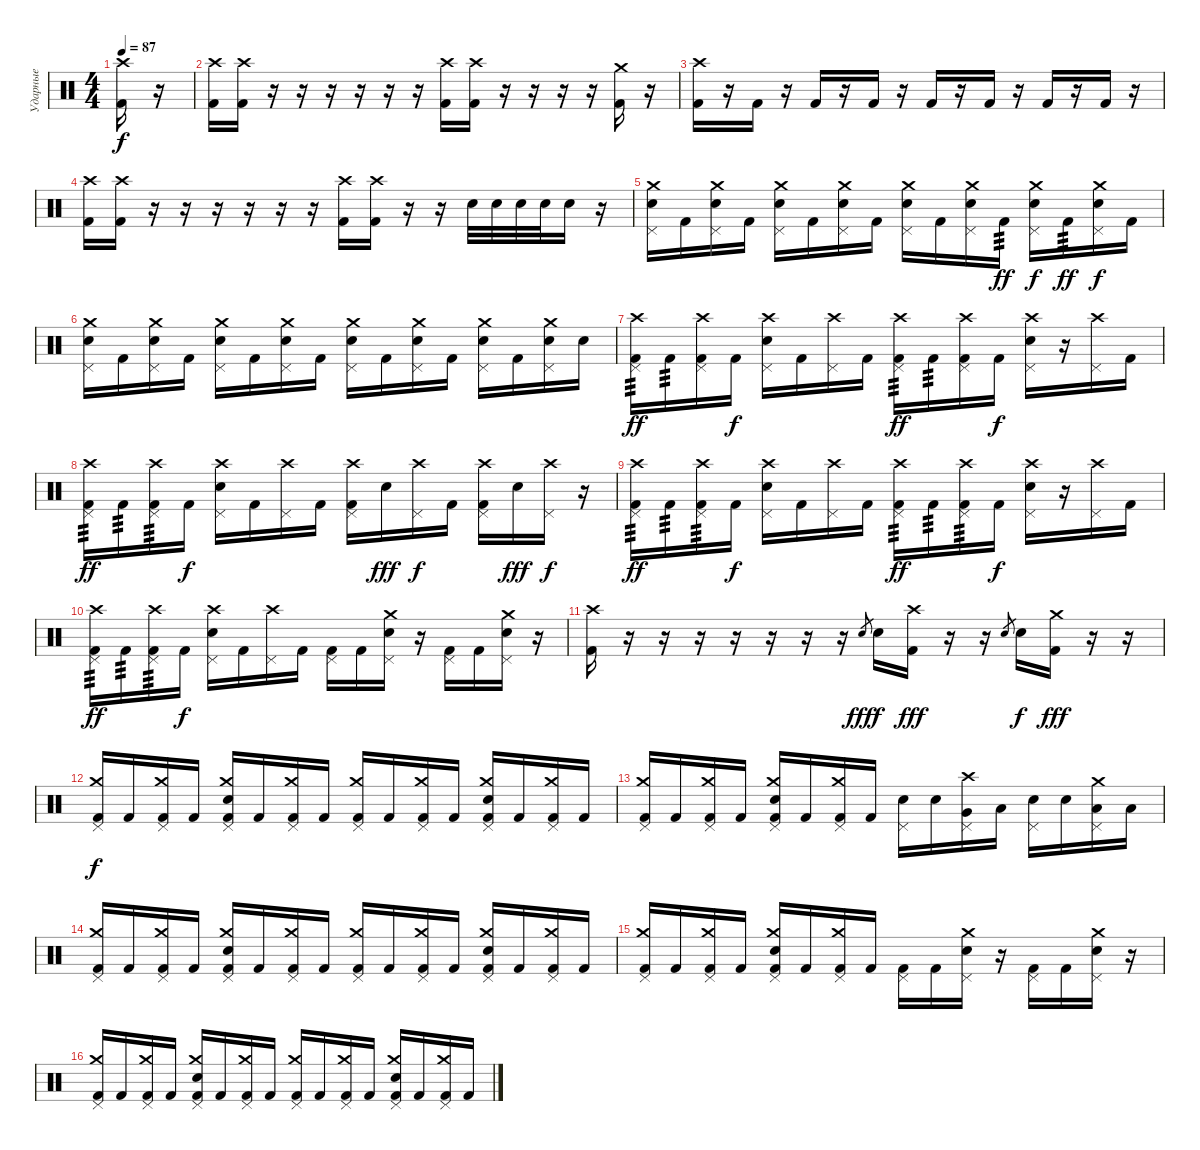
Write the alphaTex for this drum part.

\track ("Ударные" "Ударные") {instrument percussion}
\staff {score}
\articulation defaults
\ts (4 4)
\tempo 87
\clef neutral
\ks c
("Crash high (hit)" "Kick (hit) 2").16{dy f} r.16 |
("Crash high (hit)" "Kick (hit) 2").16 ("Crash high (hit)" "Kick (hit) 2").16 r.16 r.16 r.16 r.16 r.16 r.16 ("Crash high (hit)" "Kick (hit) 2").16 ("Crash high (hit)" "Kick (hit) 2").16 r.16 r.16 r.16 r.16 ("Crash medium (hit)" "Kick (hit) 2").16 r.16 |
("Crash high (hit)" "Kick (hit) 2").16 r.16 "Kick (hit) 2".16 r.16 "Kick (hit) 2".16 r.16 "Kick (hit) 2".16 r.16 "Kick (hit) 2".16 r.16 "Kick (hit) 2".16 r.16 "Kick (hit) 2".16 r.16 "Kick (hit) 2".16 r.16 |
("Crash high (hit)" "Kick (hit) 2").16 ("Crash high (hit)" "Kick (hit) 2").16 r.16 r.16 r.16 r.16 r.16 r.16 ("Crash high (hit)" "Kick (hit) 2").16 ("Crash high (hit)" "Kick (hit) 2").16 r.16 r.16 "Electric Snare (hit)".32 "Electric Snare (hit)".32 "Electric Snare (hit)".32 "Electric Snare (hit)".32 "Electric Snare (hit)".16 r.16 |
("Crash medium (hit)" "Pedal Hi-Hat (hit)" "Electric Snare (hit)").16 "Kick (hit) 2".16 ("Crash medium (hit)" "Pedal Hi-Hat (hit)" "Electric Snare (hit)").16 "Kick (hit) 2".16 ("Crash medium (hit)" "Pedal Hi-Hat (hit)" "Electric Snare (hit)").16 "Kick (hit) 2".16 ("Crash medium (hit)" "Pedal Hi-Hat (hit)" "Electric Snare (hit)").16 "Kick (hit) 2".16 ("Crash medium (hit)" "Pedal Hi-Hat (hit)" "Electric Snare (hit)").16 "Kick (hit) 2".16 ("Crash medium (hit)" "Pedal Hi-Hat (hit)" "Electric Snare (hit)").16 "Kick (hit) 2".16{tp 3 dy ff} ("Crash medium (hit)" "Pedal Hi-Hat (hit)" "Electric Snare (hit)").16{dy f} "Kick (hit) 2".16{tp 3 dy ff} ("Crash medium (hit)" "Pedal Hi-Hat (hit)" "Electric Snare (hit)").16{dy f} "Kick (hit) 2".16 |
("Crash medium (hit)" "Pedal Hi-Hat (hit)" "Electric Snare (hit)").16 "Kick (hit) 2".16 ("Crash medium (hit)" "Pedal Hi-Hat (hit)" "Electric Snare (hit)").16 "Kick (hit) 2".16 ("Crash medium (hit)" "Pedal Hi-Hat (hit)" "Electric Snare (hit)").16 "Kick (hit) 2".16 ("Crash medium (hit)" "Pedal Hi-Hat (hit)" "Electric Snare (hit)").16 "Kick (hit) 2".16 ("Crash medium (hit)" "Pedal Hi-Hat (hit)" "Electric Snare (hit)").16 "Kick (hit) 2".16 ("Crash medium (hit)" "Pedal Hi-Hat (hit)" "Electric Snare (hit)").16 "Kick (hit) 2".16 ("Crash medium (hit)" "Pedal Hi-Hat (hit)" "Electric Snare (hit)").16 "Kick (hit) 2".16 ("Crash medium (hit)" "Pedal Hi-Hat (hit)" "Electric Snare (hit)").16 "Electric Snare (hit)".16 |
("Crash high (hit)" "Pedal Hi-Hat (hit)" "Kick (hit) 2").16{tp 3 dy ff} "Kick (hit) 2".16{tp 3} ("Crash high (hit)" "Pedal Hi-Hat (hit)" "Kick (hit) 2").16 "Kick (hit) 2".16{dy f} ("Crash high (hit)" "Pedal Hi-Hat (hit)" "Electric Snare (hit)").16 "Kick (hit) 2".16 ("Crash high (hit)" "Pedal Hi-Hat (hit)").16 "Kick (hit) 2".16 ("Crash high (hit)" "Pedal Hi-Hat (hit)" "Kick (hit) 2").16{tp 3 dy ff} "Kick (hit) 2".16{tp 3} ("Crash high (hit)" "Pedal Hi-Hat (hit)" "Kick (hit) 2").16 "Kick (hit) 2".16{dy f} ("Crash high (hit)" "Pedal Hi-Hat (hit)" "Electric Snare (hit)").16 r.16 ("Crash high (hit)" "Pedal Hi-Hat (hit)").16 "Kick (hit) 2".16 |
("Crash high (hit)" "Pedal Hi-Hat (hit)" "Kick (hit) 2").16{tp 3 dy ff} "Kick (hit) 2".16{tp 3} ("Crash high (hit)" "Pedal Hi-Hat (hit)" "Kick (hit) 2").16{tp 3} "Kick (hit) 2".16{dy f} ("Crash high (hit)" "Pedal Hi-Hat (hit)" "Electric Snare (hit)").16 "Kick (hit) 2".16 ("Crash high (hit)" "Pedal Hi-Hat (hit)").16 "Kick (hit) 2".16 ("Crash high (hit)" "Pedal Hi-Hat (hit)" "Kick (hit) 2").16 "Electric Snare (hit)".16{dy fff} ("Crash high (hit)" "Pedal Hi-Hat (hit)").16{dy f} "Kick (hit) 2".16 ("Crash high (hit)" "Pedal Hi-Hat (hit)" "Kick (hit) 2").16 "Electric Snare (hit)".16{dy fff} ("Crash high (hit)" "Pedal Hi-Hat (hit)").16{dy f} r.16 |
("Crash high (hit)" "Pedal Hi-Hat (hit)" "Kick (hit) 2").16{tp 3 dy ff} "Kick (hit) 2".16{tp 3} ("Crash high (hit)" "Pedal Hi-Hat (hit)" "Kick (hit) 2").16{tp 3} "Kick (hit) 2".16{dy f} ("Crash high (hit)" "Pedal Hi-Hat (hit)" "Electric Snare (hit)").16 "Kick (hit) 2".16 ("Crash high (hit)" "Pedal Hi-Hat (hit)").16 "Kick (hit) 2".16 ("Crash high (hit)" "Pedal Hi-Hat (hit)" "Kick (hit) 2").16{tp 3 dy ff} "Kick (hit) 2".16{tp 3} ("Crash high (hit)" "Pedal Hi-Hat (hit)" "Kick (hit) 2").16{tp 3} "Kick (hit) 2".16{dy f} ("Crash high (hit)" "Pedal Hi-Hat (hit)" "Electric Snare (hit)").16 r.16 ("Crash high (hit)" "Pedal Hi-Hat (hit)").16 "Kick (hit) 2".16 |
("Crash high (hit)" "Pedal Hi-Hat (hit)" "Kick (hit) 2").16{tp 3 dy ff} "Kick (hit) 2".16{tp 3} ("Crash high (hit)" "Pedal Hi-Hat (hit)" "Kick (hit) 2").16{tp 3} "Kick (hit) 2".16{dy f} ("Crash high (hit)" "Pedal Hi-Hat (hit)" "Electric Snare (hit)").16 "Kick (hit) 2".16 ("Crash high (hit)" "Pedal Hi-Hat (hit)").16 "Kick (hit) 2".16 ("Pedal Hi-Hat (hit)" "Kick (hit) 2").16 "Kick (hit) 2".16 ("Crash medium (hit)" "Pedal Hi-Hat (hit)" "Electric Snare (hit)").16 r.16 ("Pedal Hi-Hat (hit)" "Kick (hit) 2").16 "Kick (hit) 2".16 ("Crash medium (hit)" "Pedal Hi-Hat (hit)" "Electric Snare (hit)").16 r.16 |
("Crash high (hit)" "Kick (hit) 2").16 r.16 r.16 r.16 r.16 r.16 r.16 r.16 "Electric Snare (hit)".8{gr dy fff} "Electric Snare (hit)".16{dy f} ("Crash high (hit)" "Kick (hit) 2").16{dy fff} r.16 r.16 "Electric Snare (hit)".8{gr} "Electric Snare (hit)".16{dy f} ("Crash medium (hit)" "Kick (hit) 2").16{dy fff} r.16 r.16 |
("Crash medium (hit)" "Pedal Hi-Hat (hit)" "Kick (hit) 2").16{dy f} "Kick (hit) 2".16 ("Crash medium (hit)" "Pedal Hi-Hat (hit)" "Kick (hit) 2").16 "Kick (hit) 2".16 ("Crash medium (hit)" "Pedal Hi-Hat (hit)" "Electric Snare (hit)" "Kick (hit) 2").16 "Kick (hit) 2".16 ("Crash medium (hit)" "Pedal Hi-Hat (hit)" "Kick (hit) 2").16 "Kick (hit) 2".16 ("Crash medium (hit)" "Pedal Hi-Hat (hit)" "Kick (hit) 2").16 "Kick (hit) 2".16 ("Crash medium (hit)" "Pedal Hi-Hat (hit)" "Kick (hit) 2").16 "Kick (hit) 2".16 ("Crash medium (hit)" "Pedal Hi-Hat (hit)" "Electric Snare (hit)" "Kick (hit) 2").16 "Kick (hit) 2".16 ("Crash medium (hit)" "Pedal Hi-Hat (hit)" "Kick (hit) 2").16 "Kick (hit) 2".16 |
("Crash medium (hit)" "Pedal Hi-Hat (hit)" "Kick (hit) 2").16 "Kick (hit) 2".16 ("Crash medium (hit)" "Pedal Hi-Hat (hit)" "Kick (hit) 2").16 "Kick (hit) 2".16 ("Crash medium (hit)" "Pedal Hi-Hat (hit)" "Electric Snare (hit)" "Kick (hit) 2").16 "Kick (hit) 2".16 ("Crash medium (hit)" "Pedal Hi-Hat (hit)" "Kick (hit) 2").16 "Kick (hit) 2".16 ("Pedal Hi-Hat (hit)" "Electric Snare (hit)").16 "Electric Snare (hit)".16 ("Pedal Hi-Hat (hit)" "Very Low Tom (hit)" "Crash high (hit)").16 "Low Tom (hit)".16 ("Pedal Hi-Hat (hit)" "Electric Snare (hit)").16 "Electric Snare (hit)".16 ("Pedal Hi-Hat (hit)" "Low Floor Tom (hit)" "Crash medium (hit)").16 "Low Floor Tom (hit)".16 |
("Crash medium (hit)" "Pedal Hi-Hat (hit)" "Kick (hit) 2").16 "Kick (hit) 2".16 ("Crash medium (hit)" "Pedal Hi-Hat (hit)" "Kick (hit) 2").16 "Kick (hit) 2".16 ("Crash medium (hit)" "Pedal Hi-Hat (hit)" "Electric Snare (hit)" "Kick (hit) 2").16 "Kick (hit) 2".16 ("Crash medium (hit)" "Pedal Hi-Hat (hit)" "Kick (hit) 2").16 "Kick (hit) 2".16 ("Crash medium (hit)" "Pedal Hi-Hat (hit)" "Kick (hit) 2").16 "Kick (hit) 2".16 ("Crash medium (hit)" "Pedal Hi-Hat (hit)" "Kick (hit) 2").16 "Kick (hit) 2".16 ("Crash medium (hit)" "Pedal Hi-Hat (hit)" "Electric Snare (hit)" "Kick (hit) 2").16 "Kick (hit) 2".16 ("Crash medium (hit)" "Pedal Hi-Hat (hit)" "Kick (hit) 2").16 "Kick (hit) 2".16 |
("Crash medium (hit)" "Pedal Hi-Hat (hit)" "Kick (hit) 2").16 "Kick (hit) 2".16 ("Crash medium (hit)" "Pedal Hi-Hat (hit)" "Kick (hit) 2").16 "Kick (hit) 2".16 ("Crash medium (hit)" "Pedal Hi-Hat (hit)" "Electric Snare (hit)" "Kick (hit) 2").16 "Kick (hit) 2".16 ("Crash medium (hit)" "Pedal Hi-Hat (hit)" "Kick (hit) 2").16 "Kick (hit) 2".16 ("Pedal Hi-Hat (hit)" "Kick (hit) 2").16 "Kick (hit) 2".16 ("Crash medium (hit)" "Pedal Hi-Hat (hit)" "Electric Snare (hit)").16 r.16 ("Pedal Hi-Hat (hit)" "Kick (hit) 2").16 "Kick (hit) 2".16 ("Crash medium (hit)" "Pedal Hi-Hat (hit)" "Electric Snare (hit)").16 r.16 |
("Crash medium (hit)" "Pedal Hi-Hat (hit)" "Kick (hit) 2").16 "Kick (hit) 2".16 ("Crash medium (hit)" "Pedal Hi-Hat (hit)" "Kick (hit) 2").16 "Kick (hit) 2".16 ("Crash medium (hit)" "Pedal Hi-Hat (hit)" "Electric Snare (hit)" "Kick (hit) 2").16 "Kick (hit) 2".16 ("Crash medium (hit)" "Pedal Hi-Hat (hit)" "Kick (hit) 2").16 "Kick (hit) 2".16 ("Crash medium (hit)" "Pedal Hi-Hat (hit)" "Kick (hit) 2").16 "Kick (hit) 2".16 ("Crash medium (hit)" "Pedal Hi-Hat (hit)" "Kick (hit) 2").16 "Kick (hit) 2".16 ("Crash medium (hit)" "Pedal Hi-Hat (hit)" "Electric Snare (hit)" "Kick (hit) 2").16 "Kick (hit) 2".16 ("Crash medium (hit)" "Pedal Hi-Hat (hit)" "Kick (hit) 2").16 "Kick (hit) 2".16
